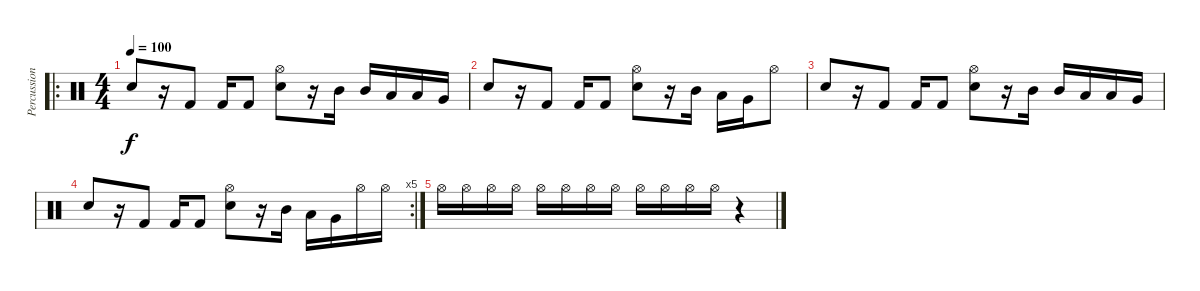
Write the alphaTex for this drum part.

\track ("Percussioni" "Percussion") {instrument percussion}
\staff {score}
\articulation defaults
\ro
\ts (4 4)
\tempo 100
\clef neutral
\ks c "Electric Snare (hit)".8{dy f}
r.16 "Kick (hit) 2".8 "Kick (hit) 2".16 "Kick (hit) 2".8 ("Hi-Hat (open)" "Electric Snare (hit)").8 r.16 "Mid Tom (hit)".16 "Mid Tom (hit)".16 "Low Tom (hit)".16 "Low Tom (hit)".16 "Very Low Tom (hit)".16 |
"Electric Snare (hit)".8 r.16 "Kick (hit) 2".8 "Kick (hit) 2".16 "Kick (hit) 2".8 ("Hi-Hat (open)" "Electric Snare (hit)").8 r.16 "Mid Tom (hit)".16 "Low Tom (hit)".16 "Very Low Tom (hit)".16 "Hi-Hat (open)".8 |
"Electric Snare (hit)".8 r.16 "Kick (hit) 2".8 "Kick (hit) 2".16 "Kick (hit) 2".8 ("Hi-Hat (open)" "Electric Snare (hit)").8 r.16 "Mid Tom (hit)".16 "Mid Tom (hit)".16 "Low Tom (hit)".16 "Low Tom (hit)".16 "Very Low Tom (hit)".16 |
\rc 5 "Electric Snare (hit)".8
r.16 "Kick (hit) 2".8 "Kick (hit) 2".16 "Kick (hit) 2".8 ("Hi-Hat (open)" "Electric Snare (hit)").8 r.16 "Mid Tom (hit)".16 "Low Tom (hit)".16 "Very Low Tom (hit)".16 "Hi-Hat (open)".16 "Hi-Hat (open)".16 |
"Hi-Hat (open)".16 "Hi-Hat (open)".16 "Hi-Hat (open)".16 "Hi-Hat (open)".16 "Hi-Hat (open)".16 "Hi-Hat (open)".16 "Hi-Hat (open)".16 "Hi-Hat (open)".16 "Hi-Hat (open)".16 "Hi-Hat (open)".16 "Hi-Hat (open)".16 "Hi-Hat (open)".16 r.4
